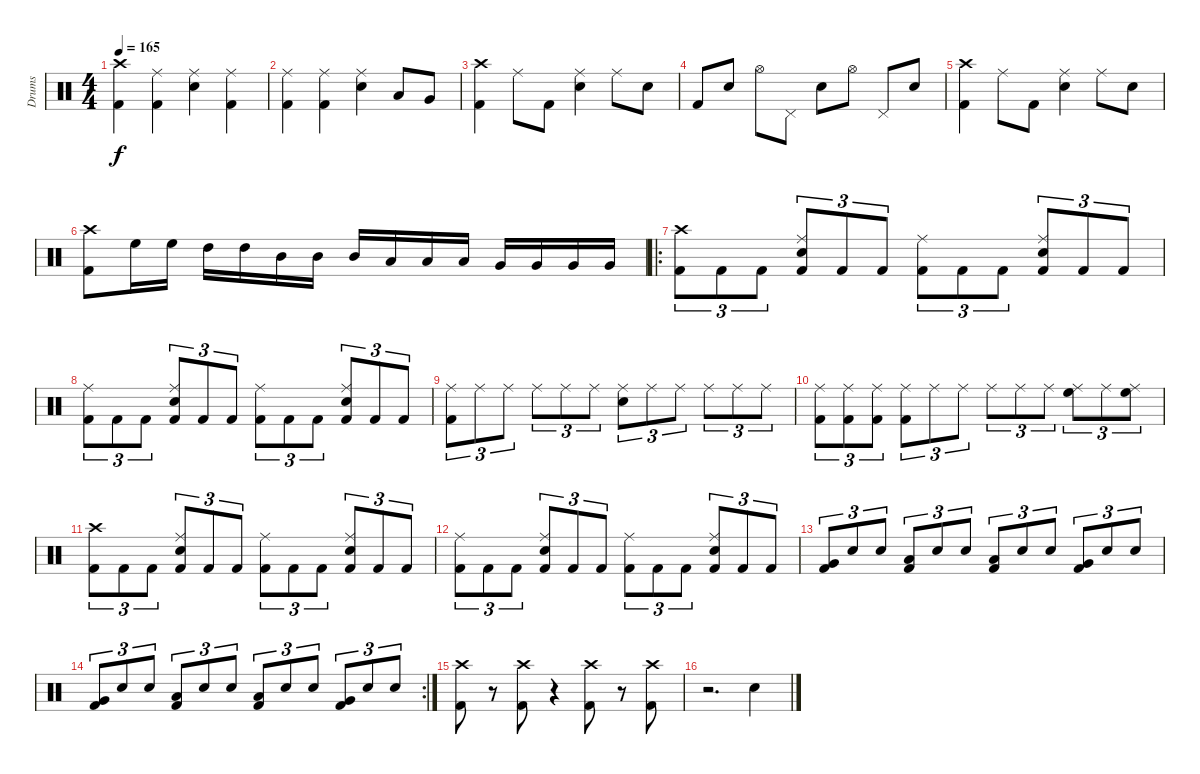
\track ("Drums" "Drums") {instrument percussion}
\staff {score}
\articulation defaults
\ts (4 4)
\tempo 165
\clef neutral
\ks c
("Crash high (hit)" "Kick (hit) 2").4{dy f} ("Ride (middle)" "Kick (hit) 2").4 ("Ride (middle)" "Electric Snare (hit)").4 ("Ride (middle)" "Kick (hit) 2").4 |
("Ride (middle)" "Kick (hit) 2").4 ("Ride (middle)" "Kick (hit) 2").4 ("Ride (middle)" "Electric Snare (hit)").4 "Low Tom (hit)".8 "Very Low Tom (hit)".8 |
("Crash high (hit)" "Kick (hit) 2").4 "Ride (middle)".8 "Kick (hit) 2".8 ("Ride (middle)" "Electric Snare (hit)").4 "Ride (middle)".8 "Electric Snare (hit)".8 |
"Kick (hit) 2".8 "Electric Snare (hit)".8 "Hi-Hat (open)".8 "Pedal Hi-Hat (hit)".8 "Electric Snare (hit)".8 "Hi-Hat (open)".8 "Pedal Hi-Hat (hit)".8 "Electric Snare (hit)".8 |
("Crash high (hit)" "Kick (hit) 2").4 "Ride (middle)".8 "Kick (hit) 2".8 ("Ride (middle)" "Electric Snare (hit)").4 "Ride (middle)".8 "Electric Snare (hit)".8 |
("Crash high (hit)" "Kick (hit) 2").8 "High Floor Tom (hit)".16 "High Floor Tom (hit)".16 "High Tom (hit)".16 "High Tom (hit)".16 "Mid Tom (hit)".16 "Mid Tom (hit)".16 "Mid Tom (hit)".16 "Low Tom (hit)".16 "Low Tom (hit)".16 "Low Tom (hit)".16 "Very Low Tom (hit)".16 "Very Low Tom (hit)".16 "Very Low Tom (hit)".16 "Very Low Tom (hit)".16 |
\ro
("Crash high (hit)" "Kick (hit) 2").8{tu (3 2)} "Kick (hit) 2".8{tu (3 2)} "Kick (hit) 2".8{tu (3 2)} ("Ride (middle)" "Electric Snare (hit)" "Kick (hit) 2").8{tu (3 2)} "Kick (hit) 2".8{tu (3 2)} "Kick (hit) 2".8{tu (3 2)} ("Ride (middle)" "Kick (hit) 2").8{tu (3 2)} "Kick (hit) 2".8{tu (3 2)} "Kick (hit) 2".8{tu (3 2)} ("Ride (middle)" "Electric Snare (hit)" "Kick (hit) 2").8{tu (3 2)} "Kick (hit) 2".8{tu (3 2)} "Kick (hit) 2".8{tu (3 2)} |
("Ride (middle)" "Kick (hit) 2").8{tu (3 2)} "Kick (hit) 2".8{tu (3 2)} "Kick (hit) 2".8{tu (3 2)} ("Ride (middle)" "Electric Snare (hit)" "Kick (hit) 2").8{tu (3 2)} "Kick (hit) 2".8{tu (3 2)} "Kick (hit) 2".8{tu (3 2)} ("Ride (middle)" "Kick (hit) 2").8{tu (3 2)} "Kick (hit) 2".8{tu (3 2)} "Kick (hit) 2".8{tu (3 2)} ("Ride (middle)" "Electric Snare (hit)" "Kick (hit) 2").8{tu (3 2)} "Kick (hit) 2".8{tu (3 2)} "Kick (hit) 2".8{tu (3 2)} |
("Ride (middle)" "Kick (hit) 2").8{tu (3 2)} "Ride (middle)".8{tu (3 2)} "Ride (middle)".8{tu (3 2)} "Ride (middle)".8{tu (3 2)} "Ride (middle)".8{tu (3 2)} "Ride (middle)".8{tu (3 2)} ("Ride (middle)" "Electric Snare (hit)").8{tu (3 2)} "Ride (middle)".8{tu (3 2)} "Ride (middle)".8{tu (3 2)} "Ride (middle)".8{tu (3 2)} "Ride (middle)".8{tu (3 2)} "Ride (middle)".8{tu (3 2)} |
("Ride (middle)" "Kick (hit) 2").8{tu (3 2)} ("Ride (middle)" "Kick (hit) 2").8{tu (3 2)} ("Ride (middle)" "Kick (hit) 2").8{tu (3 2)} ("Ride (middle)" "Kick (hit) 2").8{tu (3 2)} "Ride (middle)".8{tu (3 2)} "Ride (middle)".8{tu (3 2)} "Ride (middle)".8{tu (3 2)} "Ride (middle)".8{tu (3 2)} "Ride (middle)".8{tu (3 2)} ("Ride (middle)" "High Floor Tom (hit)").8{tu (3 2)} "Ride (middle)".8{tu (3 2)} ("Ride (middle)" "High Floor Tom (hit)").8{tu (3 2)} |
("Crash high (hit)" "Kick (hit) 2").8{tu (3 2)} "Kick (hit) 2".8{tu (3 2)} "Kick (hit) 2".8{tu (3 2)} ("Ride (middle)" "Electric Snare (hit)" "Kick (hit) 2").8{tu (3 2)} "Kick (hit) 2".8{tu (3 2)} "Kick (hit) 2".8{tu (3 2)} ("Ride (middle)" "Kick (hit) 2").8{tu (3 2)} "Kick (hit) 2".8{tu (3 2)} "Kick (hit) 2".8{tu (3 2)} ("Ride (middle)" "Electric Snare (hit)" "Kick (hit) 2").8{tu (3 2)} "Kick (hit) 2".8{tu (3 2)} "Kick (hit) 2".8{tu (3 2)} |
("Ride (middle)" "Kick (hit) 2").8{tu (3 2)} "Kick (hit) 2".8{tu (3 2)} "Kick (hit) 2".8{tu (3 2)} ("Ride (middle)" "Electric Snare (hit)" "Kick (hit) 2").8{tu (3 2)} "Kick (hit) 2".8{tu (3 2)} "Kick (hit) 2".8{tu (3 2)} ("Ride (middle)" "Kick (hit) 2").8{tu (3 2)} "Kick (hit) 2".8{tu (3 2)} "Kick (hit) 2".8{tu (3 2)} ("Ride (middle)" "Electric Snare (hit)" "Kick (hit) 2").8{tu (3 2)} "Kick (hit) 2".8{tu (3 2)} "Kick (hit) 2".8{tu (3 2)} |
("Very Low Tom (hit)" "Kick (hit) 2").8{tu (3 2)} "Electric Snare (hit)".8{tu (3 2)} "Electric Snare (hit)".8{tu (3 2)} ("Low Floor Tom (hit)" "Kick (hit) 2").8{tu (3 2)} "Electric Snare (hit)".8{tu (3 2)} "Electric Snare (hit)".8{tu (3 2)} ("Low Tom (hit)" "Kick (hit) 2").8{tu (3 2)} "Electric Snare (hit)".8{tu (3 2)} "Electric Snare (hit)".8{tu (3 2)} ("Very Low Tom (hit)" "Kick (hit) 2").8{tu (3 2)} "Electric Snare (hit)".8{tu (3 2)} "Electric Snare (hit)".8{tu (3 2)} |
\rc 2
("Very Low Tom (hit)" "Kick (hit) 2").8{tu (3 2)} "Electric Snare (hit)".8{tu (3 2)} "Electric Snare (hit)".8{tu (3 2)} ("Low Floor Tom (hit)" "Kick (hit) 2").8{tu (3 2)} "Electric Snare (hit)".8{tu (3 2)} "Electric Snare (hit)".8{tu (3 2)} ("Low Tom (hit)" "Kick (hit) 2").8{tu (3 2)} "Electric Snare (hit)".8{tu (3 2)} "Electric Snare (hit)".8{tu (3 2)} ("Very Low Tom (hit)" "Kick (hit) 2").8{tu (3 2)} "Electric Snare (hit)".8{tu (3 2)} "Electric Snare (hit)".8{tu (3 2)} |
("Crash high (hit)" "Kick (hit) 2").8 r.8{volume 0} ("Crash high (hit)" "Kick (hit) 2").8{volume 13} r.4{volume 0} ("Crash high (hit)" "Kick (hit) 2").8{volume 13} r.8{volume 0} ("Crash high (hit)" "Kick (hit) 2").8{volume 13} |
r.2{d volume 0} "Electric Snare (hit)".4{volume 13}
